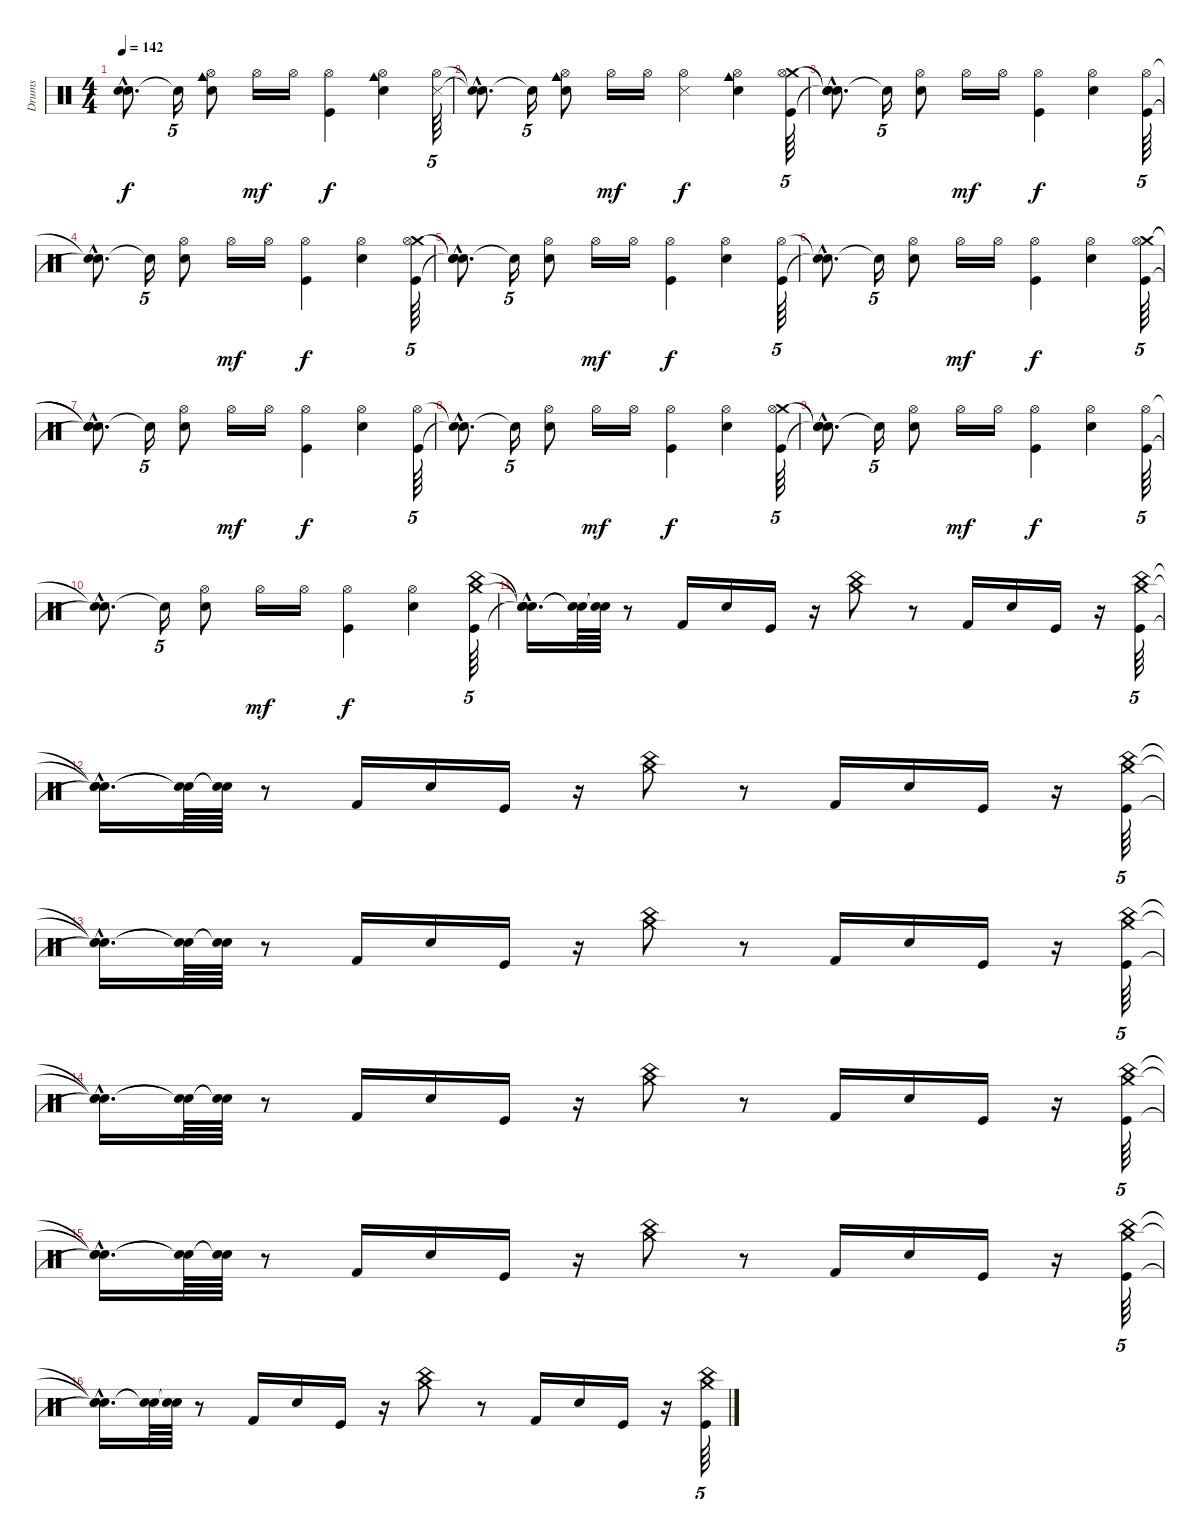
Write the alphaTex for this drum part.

\track ("Drums" "Drums") {instrument percussion}
\staff {score}
\articulation defaults
\ts (4 4)
\tempo 142
\clef neutral
\ks c
("Snare (hit)"{hac t} "Snare (hit)"{hac t}).8{d dy f} "Snare (hit)"{t}.16{tu (5 4)} ("Snare (hit) 2" "Hi-Hat (open)" "Cowbell medium (hit)").8 "Hi-Hat (open)".16{dy mf} "Hi-Hat (open)".16 ("Kick (hit)" "Hi-Hat (open)").4{dy f} ("Snare (hit) 2" "Hi-Hat (open)" "Cowbell medium (hit)").4 ("Hi-Hat (open)" "Metronome (hit)").64{tu (5 4)} |
("Snare (hit)"{hac t} "Snare (hit)"{hac t}).8{d} "Snare (hit)"{t}.16{tu (5 4)} ("Snare (hit) 2" "Hi-Hat (open)" "Cowbell medium (hit)").8 "Hi-Hat (open)".16{dy mf} "Hi-Hat (open)".16 ("Metronome (hit)" "Hi-Hat (open)").4{dy f} ("Snare (hit) 2" "Hi-Hat (open)" "Cowbell medium (hit)").4 ("Crash medium (hit)" "Hi-Hat (open)" "Kick (hit)").64{tu (5 4)} |
("Snare (hit)"{hac t} "Snare (hit)"{hac t} "Snare (hit)"{hac t}).8{d} "Snare (hit)"{t}.16{tu (5 4)} ("Snare (hit) 2" "Hi-Hat (open)").8 "Hi-Hat (open)".16{dy mf} "Hi-Hat (open)".16 ("Kick (hit)" "Hi-Hat (open)").4{dy f} ("Snare (hit) 2" "Hi-Hat (open)").4 ("Hi-Hat (open)" "Kick (hit)").64{tu (5 4)} |
("Snare (hit)"{hac t} "Snare (hit)"{hac t}).8{d} "Snare (hit)"{t}.16{tu (5 4)} ("Snare (hit) 2" "Hi-Hat (open)").8 "Hi-Hat (open)".16{dy mf} "Hi-Hat (open)".16 ("Kick (hit)" "Hi-Hat (open)").4{dy f} ("Snare (hit) 2" "Hi-Hat (open)").4 ("Crash medium (hit)" "Hi-Hat (open)" "Kick (hit)").64{tu (5 4)} |
("Snare (hit)"{hac t} "Snare (hit)"{hac t} "Snare (hit)"{hac t}).8{d} "Snare (hit)"{t}.16{tu (5 4)} ("Snare (hit) 2" "Hi-Hat (open)").8 "Hi-Hat (open)".16{dy mf} "Hi-Hat (open)".16 ("Kick (hit)" "Hi-Hat (open)").4{dy f} ("Snare (hit) 2" "Hi-Hat (open)").4 ("Hi-Hat (open)" "Kick (hit)").64{tu (5 4)} |
("Snare (hit)"{hac t} "Snare (hit)"{hac t}).8{d} "Snare (hit)"{t}.16{tu (5 4)} ("Snare (hit) 2" "Hi-Hat (open)").8 "Hi-Hat (open)".16{dy mf} "Hi-Hat (open)".16 ("Kick (hit)" "Hi-Hat (open)").4{dy f} ("Snare (hit) 2" "Hi-Hat (open)").4 ("Crash medium (hit)" "Hi-Hat (open)" "Kick (hit)").64{tu (5 4)} |
("Snare (hit)"{hac t} "Snare (hit)"{hac t} "Snare (hit)"{hac t}).8{d} "Snare (hit)"{t}.16{tu (5 4)} ("Snare (hit) 2" "Hi-Hat (open)").8 "Hi-Hat (open)".16{dy mf} "Hi-Hat (open)".16 ("Kick (hit)" "Hi-Hat (open)").4{dy f} ("Snare (hit) 2" "Hi-Hat (open)").4 ("Hi-Hat (open)" "Kick (hit)").64{tu (5 4)} |
("Snare (hit)"{hac t} "Snare (hit)"{hac t}).8{d} "Snare (hit)"{t}.16{tu (5 4)} ("Snare (hit) 2" "Hi-Hat (open)").8 "Hi-Hat (open)".16{dy mf} "Hi-Hat (open)".16 ("Kick (hit)" "Hi-Hat (open)").4{dy f} ("Snare (hit) 2" "Hi-Hat (open)").4 ("Crash medium (hit)" "Hi-Hat (open)" "Kick (hit)").64{tu (5 4)} |
("Snare (hit)"{hac t} "Snare (hit)"{hac t} "Snare (hit)"{hac t}).8{d} "Snare (hit)"{t}.16{tu (5 4)} ("Snare (hit) 2" "Hi-Hat (open)").8 "Hi-Hat (open)".16{dy mf} "Hi-Hat (open)".16 ("Kick (hit)" "Hi-Hat (open)").4{dy f} ("Snare (hit) 2" "Hi-Hat (open)").4 ("Hi-Hat (open)" "Kick (hit)").64{tu (5 4)} |
("Snare (hit)"{hac t} "Snare (hit)"{hac t}).8{d} "Snare (hit)"{t}.16{tu (5 4)} ("Snare (hit) 2" "Hi-Hat (open)").8 "Hi-Hat (open)".16{dy mf} "Hi-Hat (open)".16 ("Kick (hit)" "Hi-Hat (open)").4{dy f} ("Snare (hit) 2" "Hi-Hat (open)").4 ("Kick (hit)" "China (hit)" "Crash medium (hit)").64{tu (5 4)} |
("Snare (hit)"{t} "Snare (hit)"{hac t} "Snare (hit)"{hac t}).16{d} ("Snare (hit)"{t} "Snare (hit)"{t}).64 ("Snare (hit)"{t} "Snare (hit)"{t}).64 r.8 "Kick (hit) 2".16 "Snare (hit) 2".16 "Kick (hit)".16 r.16 ("China (hit)" "Crash medium (hit)").8 r.8 "Kick (hit) 2".16 "Snare (hit) 2".16 "Kick (hit)".16 r.16 ("Kick (hit)" "China (hit)" "Crash medium (hit)").64{tu (5 4)} |
("Snare (hit)"{t} "Snare (hit)"{hac t} "Snare (hit)"{hac t}).16{d} ("Snare (hit)"{t} "Snare (hit)"{t}).64 ("Snare (hit)"{t} "Snare (hit)"{t}).64 r.8 "Kick (hit) 2".16 "Snare (hit) 2".16 "Kick (hit)".16 r.16 ("China (hit)" "Crash medium (hit)").8 r.8 "Kick (hit) 2".16 "Snare (hit) 2".16 "Kick (hit)".16 r.16 ("Kick (hit)" "China (hit)" "Crash medium (hit)").64{tu (5 4)} |
("Snare (hit)"{t} "Snare (hit)"{hac t} "Snare (hit)"{hac t}).16{d} ("Snare (hit)"{t} "Snare (hit)"{t}).64 ("Snare (hit)"{t} "Snare (hit)"{t}).64 r.8 "Kick (hit) 2".16 "Snare (hit) 2".16 "Kick (hit)".16 r.16 ("China (hit)" "Crash medium (hit)").8 r.8 "Kick (hit) 2".16 "Snare (hit) 2".16 "Kick (hit)".16 r.16 ("Kick (hit)" "China (hit)" "Crash medium (hit)").64{tu (5 4)} |
("Snare (hit)"{t} "Snare (hit)"{hac t} "Snare (hit)"{hac t}).16{d} ("Snare (hit)"{t} "Snare (hit)"{t}).64 ("Snare (hit)"{t} "Snare (hit)"{t}).64 r.8 "Kick (hit) 2".16 "Snare (hit) 2".16 "Kick (hit)".16 r.16 ("China (hit)" "Crash medium (hit)").8 r.8 "Kick (hit) 2".16 "Snare (hit) 2".16 "Kick (hit)".16 r.16 ("Kick (hit)" "China (hit)" "Crash medium (hit)").64{tu (5 4)} |
("Snare (hit)"{t} "Snare (hit)"{hac t} "Snare (hit)"{hac t}).16{d} ("Snare (hit)"{t} "Snare (hit)"{t}).64 ("Snare (hit)"{t} "Snare (hit)"{t}).64 r.8 "Kick (hit) 2".16 "Snare (hit) 2".16 "Kick (hit)".16 r.16 ("China (hit)" "Crash medium (hit)").8 r.8 "Kick (hit) 2".16 "Snare (hit) 2".16 "Kick (hit)".16 r.16 ("Kick (hit)" "China (hit)" "Crash medium (hit)").64{tu (5 4)} |
("Snare (hit)"{t} "Snare (hit)"{hac t} "Snare (hit)"{hac t}).16{d} ("Snare (hit)"{t} "Snare (hit)"{t}).64 ("Snare (hit)"{t} "Snare (hit)"{t}).64 r.8 "Kick (hit) 2".16 "Snare (hit) 2".16 "Kick (hit)".16 r.16 ("China (hit)" "Crash medium (hit)").8 r.8 "Kick (hit) 2".16 "Snare (hit) 2".16 "Kick (hit)".16 r.16 ("Kick (hit)" "China (hit)" "Crash medium (hit)").64{tu (5 4)}
